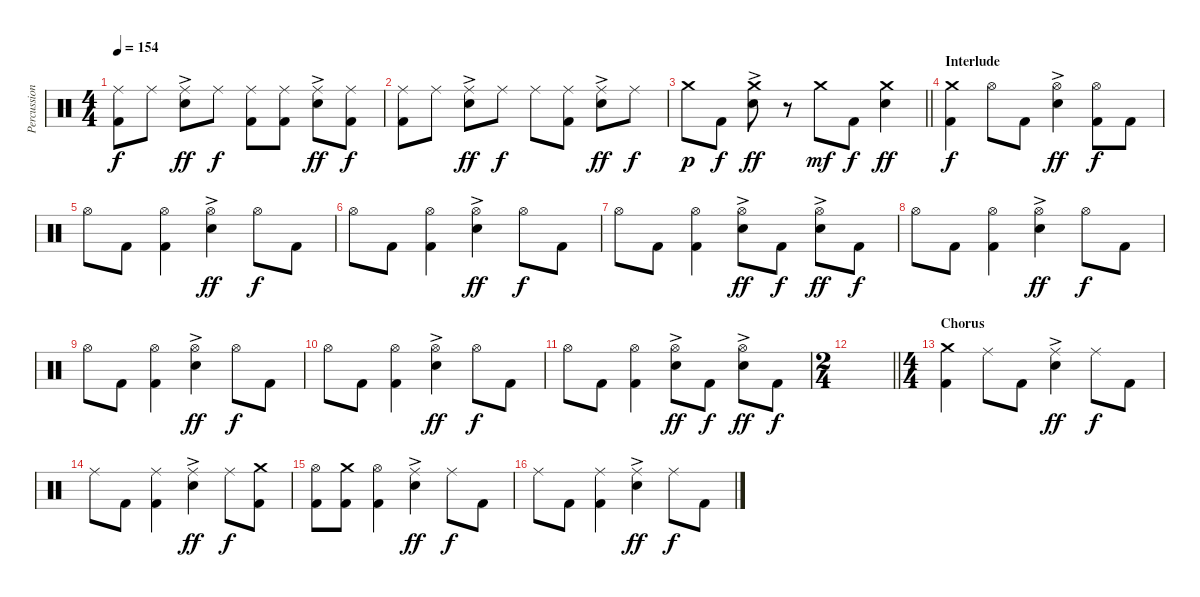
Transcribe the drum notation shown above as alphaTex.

\track ("Percussion" "Percussion") {instrument percussion}
\staff {score}
\articulation defaults
\ts (4 4)
\tempo 154
\clef neutral
\ks c
("Ride (middle)" "Kick (hit) 2").8{dy f} "Ride (middle)".8 ("Ride (middle)" "Electric Snare (hit)"{ac}).8{dy ff} "Ride (middle)".8{dy f} ("Ride (middle)" "Kick (hit) 2").8 ("Ride (middle)" "Kick (hit) 2").8 ("Ride (middle)" "Electric Snare (hit)"{ac}).8{dy ff} ("Ride (middle)" "Kick (hit) 2").8{dy f} |
("Ride (middle)" "Kick (hit) 2").8 "Ride (middle)".8 ("Ride (middle)" "Electric Snare (hit)"{ac}).8{dy ff} "Ride (middle)".8{dy f} "Ride (middle)".8 ("Ride (middle)" "Kick (hit) 2").8 ("Ride (middle)" "Electric Snare (hit)"{ac}).8{dy ff} "Ride (middle)".8{dy f} |
\barLineRight lightlight "Crash medium (hit)".8{dy p} "Kick (hit) 2".8{dy f}
("Crash medium (hit)" "Electric Snare (hit)"{ac}).8{dy ff} r.8 "Crash medium (hit)".8{dy mf} "Kick (hit) 2".8{dy f} ("Crash medium (hit)" "Electric Snare (hit)").4{dy ff} |
\section ("" "Interlude")
("Crash medium (hit)" "Kick (hit) 2").4{dy f} "Hi-Hat (open)".8 "Kick (hit) 2".8 ("Hi-Hat (open)" "Electric Snare (hit)"{ac}).4{dy ff} ("Hi-Hat (open)" "Kick (hit) 2").8{dy f} "Kick (hit) 2".8 |
"Hi-Hat (open)".8 "Kick (hit) 2".8 ("Hi-Hat (open)" "Kick (hit) 2").4 ("Hi-Hat (open)" "Electric Snare (hit)"{ac}).4{dy ff} "Hi-Hat (open)".8{dy f} "Kick (hit) 2".8 |
"Hi-Hat (open)".8 "Kick (hit) 2".8 ("Hi-Hat (open)" "Kick (hit) 2").4 ("Hi-Hat (open)" "Electric Snare (hit)"{ac}).4{dy ff} "Hi-Hat (open)".8{dy f} "Kick (hit) 2".8 |
"Hi-Hat (open)".8 "Kick (hit) 2".8 ("Hi-Hat (open)" "Kick (hit) 2").4 ("Hi-Hat (open)" "Electric Snare (hit)"{ac}).8{dy ff} "Kick (hit) 2".8{dy f} ("Hi-Hat (open)" "Electric Snare (hit)"{ac}).8{dy ff} "Kick (hit) 2".8{dy f} |
"Hi-Hat (open)".8 "Kick (hit) 2".8 ("Hi-Hat (open)" "Kick (hit) 2").4 ("Hi-Hat (open)" "Electric Snare (hit)"{ac}).4{dy ff} "Hi-Hat (open)".8{dy f} "Kick (hit) 2".8 |
"Hi-Hat (open)".8 "Kick (hit) 2".8 ("Hi-Hat (open)" "Kick (hit) 2").4 ("Hi-Hat (open)" "Electric Snare (hit)"{ac}).4{dy ff} "Hi-Hat (open)".8{dy f} "Kick (hit) 2".8 |
"Hi-Hat (open)".8 "Kick (hit) 2".8 ("Hi-Hat (open)" "Kick (hit) 2").4 ("Hi-Hat (open)" "Electric Snare (hit)"{ac}).4{dy ff} "Hi-Hat (open)".8{dy f} "Kick (hit) 2".8 |
"Hi-Hat (open)".8 "Kick (hit) 2".8 ("Hi-Hat (open)" "Kick (hit) 2").4 ("Hi-Hat (open)" "Electric Snare (hit)"{ac}).8{dy ff} "Kick (hit) 2".8{dy f} ("Hi-Hat (open)" "Electric Snare (hit)"{ac}).8{dy ff} "Kick (hit) 2".8{dy f} |
\ts (2 4)
\barLineRight lightlight
|
\ts (4 4)
\section ("" "Chorus")
("Crash medium (hit)" "Kick (hit) 2").4 "Ride (middle)".8 "Kick (hit) 2".8 ("Ride (middle)" "Electric Snare (hit)"{ac}).4{dy ff} "Ride (middle)".8{dy f} "Kick (hit) 2".8 |
"Ride (middle)".8 "Kick (hit) 2".8 ("Ride (middle)" "Kick (hit) 2").4 ("Ride (middle)" "Electric Snare (hit)"{ac}).4{dy ff} "Ride (middle)".8{dy f} ("Crash medium (hit)" "Kick (hit) 2").8 |
("Hi-Hat (open)" "Kick (hit) 2").8 ("Crash medium (hit)" "Kick (hit) 2").8 ("Hi-Hat (open)" "Kick (hit) 2").4 ("Ride (middle)" "Electric Snare (hit)"{ac}).4{dy ff} "Ride (middle)".8{dy f} "Kick (hit) 2".8 |
"Ride (middle)".8 "Kick (hit) 2".8 ("Ride (middle)" "Kick (hit) 2").4 ("Ride (middle)" "Electric Snare (hit)"{ac}).4{dy ff} "Ride (middle)".8{dy f} "Kick (hit) 2".8
